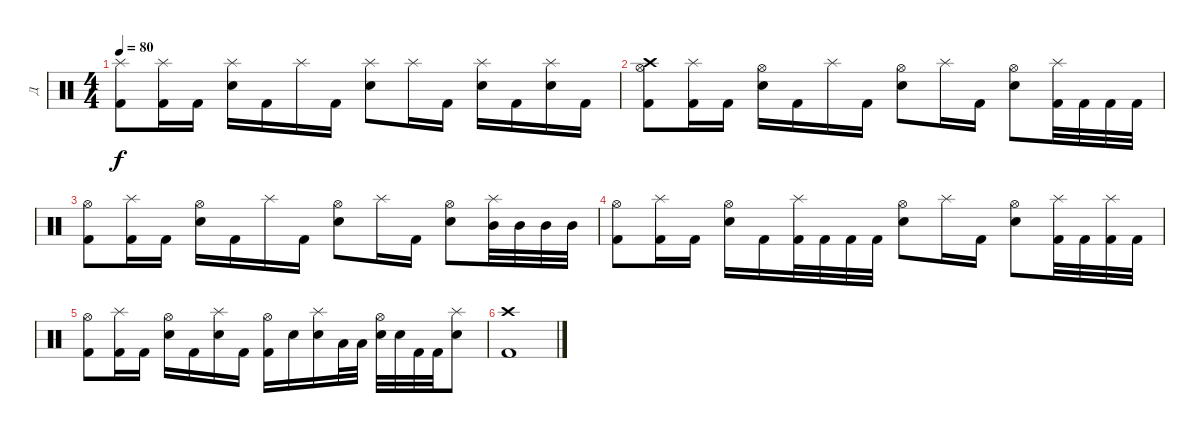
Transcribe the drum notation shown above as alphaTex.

\track ("Д" "Д") {instrument percussion}
\staff {score}
\articulation defaults
\ts (4 4)
\tempo 80
\clef neutral
\ks c
("Kick (hit) 2" "Splash (hit)").8{dy f} ("Kick (hit) 2" "Splash (hit)").16 "Kick (hit) 2".16 ("Electric Snare (hit)" "Splash (hit)").16 "Kick (hit) 2".16 "Splash (hit)".16 "Kick (hit) 2".16 ("Electric Snare (hit)" "Splash (hit)").8 "Splash (hit)".16 "Kick (hit) 2".16 ("Electric Snare (hit)" "Splash (hit)").16 "Kick (hit) 2".16 ("Electric Snare (hit)" "Splash (hit)").16 "Kick (hit) 2".16 |
("Crash high (hit)" "Kick (hit) 2" "Hi-Hat (open)").8 ("Kick (hit) 2" "Splash (hit)").16 "Kick (hit) 2".16 ("Electric Snare (hit)" "Hi-Hat (open)").16 "Kick (hit) 2".16 "Splash (hit)".16 "Kick (hit) 2".16 ("Electric Snare (hit)" "Hi-Hat (open)").8 "Splash (hit)".16 "Kick (hit) 2".16 ("Electric Snare (hit)" "Hi-Hat (open)").8 ("Kick (hit) 2" "Splash (hit)").32 "Kick (hit) 2".32 "Kick (hit) 2".32 "Kick (hit) 2".32 |
("Kick (hit) 2" "Hi-Hat (open)").8 ("Kick (hit) 2" "Splash (hit)").16 "Kick (hit) 2".16 ("Electric Snare (hit)" "Hi-Hat (open)").16 "Kick (hit) 2".16 "Splash (hit)".16 "Kick (hit) 2".16 ("Electric Snare (hit)" "Hi-Hat (open)").8 "Splash (hit)".16 "Kick (hit) 2".16 ("Electric Snare (hit)" "Hi-Hat (open)").8 ("Mid Tom (hit)" "Splash (hit)").32 "Mid Tom (hit)".32 "Mid Tom (hit)".32 "Mid Tom (hit)".32 |
("Kick (hit) 2" "Hi-Hat (open)").8 ("Kick (hit) 2" "Splash (hit)").16 "Kick (hit) 2".16 ("Electric Snare (hit)" "Hi-Hat (open)").16 "Kick (hit) 2".16 ("Kick (hit) 2" "Splash (hit)").32 "Kick (hit) 2".32 "Kick (hit) 2".32 "Kick (hit) 2".32 ("Electric Snare (hit)" "Hi-Hat (open)").8 "Splash (hit)".16 "Kick (hit) 2".16 ("Electric Snare (hit)" "Hi-Hat (open)").8 ("Kick (hit) 2" "Splash (hit)").32 "Kick (hit) 2".32 ("Kick (hit) 2" "Splash (hit)").32 "Kick (hit) 2".32 |
("Kick (hit) 2" "Hi-Hat (open)").8 ("Kick (hit) 2" "Splash (hit)").16 "Kick (hit) 2".16 ("Electric Snare (hit)" "Hi-Hat (open)").16 "Kick (hit) 2".16 ("Electric Snare (hit)" "Splash (hit)").16 "Kick (hit) 2".16 ("Kick (hit) 2" "Hi-Hat (open)").16 "Electric Snare (hit)".16 ("Electric Snare (hit)" "Splash (hit)").16 "Low Tom (hit)".32 "Low Tom (hit)".32 ("Electric Snare (hit)" "Hi-Hat (open)").32 "Electric Snare (hit)".32 "Kick (hit) 2".32 "Kick (hit) 2".32 ("Electric Snare (hit)" "Splash (hit)").8 |
("Crash high (hit)" "Kick (hit) 2").1
